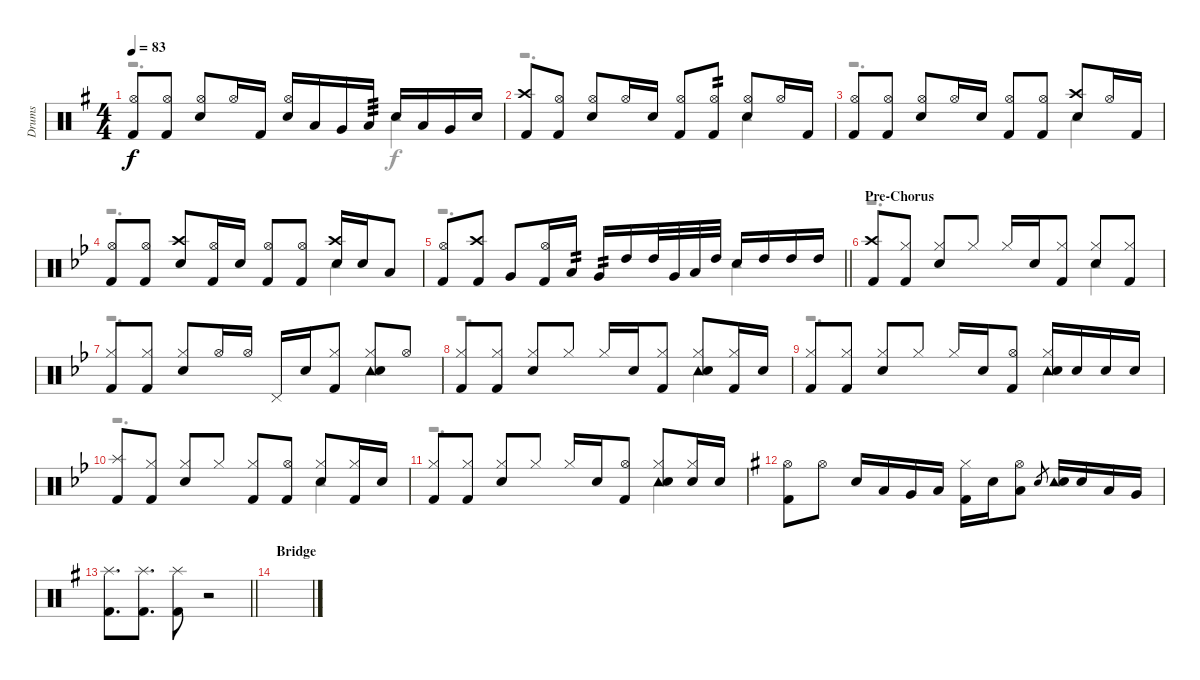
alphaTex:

\track ("Drums" "Drums") {instrument percussion}
\staff {score}
\articulation defaults
\voice
\ts (4 4)
\tempo 83
\clef neutral
\ks g
("Hi-Hat (open)" "Kick (hit) 2").8{dy f} ("Hi-Hat (open)" "Kick (hit) 2").8 ("Hi-Hat (open)" "Electric Snare (hit)").8 "Hi-Hat (open)".16 "Kick (hit) 2".16 ("Hi-Hat (open)" "Electric Snare (hit)").16 "Low Tom (hit)".16 "Very Low Tom (hit)".16 "Low Floor Tom (hit)".16{tp 3} "Electric Snare (hit)".16 "Low Tom (hit)".16 "Very Low Tom (hit)".16 "Electric Snare (hit)".16 |
("Crash high (hit)" "Kick (hit) 2").8 ("Hi-Hat (open)" "Kick (hit) 2").8 ("Hi-Hat (open)" "Electric Snare (hit)").8 "Hi-Hat (open)".16 "Electric Snare (hit)".16 ("Hi-Hat (open)" "Kick (hit) 2").8 ("Hi-Hat (open)" "Kick (hit) 2").8{tp 2} ("Hi-Hat (open)" "Electric Snare (hit)").8 "Hi-Hat (open)".16 "Kick (hit) 2".16 |
("Hi-Hat (open)" "Kick (hit) 2").8 ("Hi-Hat (open)" "Kick (hit) 2").8 ("Hi-Hat (open)" "Electric Snare (hit)").8 "Hi-Hat (open)".16 "Electric Snare (hit)".16 ("Hi-Hat (open)" "Kick (hit) 2").8 ("Hi-Hat (open)" "Kick (hit) 2").8 ("Crash high (hit)" "Electric Snare (hit)").8 "Hi-Hat (open)".16 "Kick (hit) 2".16 |
\ks bb
("Hi-Hat (open)" "Kick (hit) 2").8 ("Hi-Hat (open)" "Kick (hit) 2").8 ("Crash high (hit)" "Electric Snare (hit)").8 ("Hi-Hat (open)" "Kick (hit) 2").16 "Electric Snare (hit)".16 ("Hi-Hat (open)" "Kick (hit) 2").8 ("Hi-Hat (open)" "Kick (hit) 2").8 ("Crash high (hit)" "Electric Snare (hit)").16 "Electric Snare (hit)".16 "Low Tom (hit)".8 |
\barLineRight lightlight
("Hi-Hat (open)" "Kick (hit) 2").8 ("Crash high (hit)" "Kick (hit) 2").8 "Very Low Tom (hit)".8 ("Hi-Hat (open)" "Kick (hit) 2").16 "Low Tom (hit)".16{tp 2} "Very Low Tom (hit)".16{tp 2} "High Tom (hit)".16 "High Tom (hit)".32 "Very Low Tom (hit)".32 "Low Tom (hit)".32 "High Tom (hit)".32 "Electric Snare (hit)".16 "High Tom (hit)".16 "High Tom (hit)".16 "High Tom (hit)".16 |
\section ("" "Pre-Chorus")
("Crash high (hit)" "Kick (hit) 2").8 ("Hi-Hat (closed)" "Kick (hit) 2").8 ("Hi-Hat (closed)" "Electric Snare (hit)").8 "Hi-Hat (closed)".8 "Hi-Hat (closed)".16 "Electric Snare (hit)".16 ("Hi-Hat (closed)" "Kick (hit) 2").8 ("Hi-Hat (closed)" "Electric Snare (hit)").8 ("Hi-Hat (closed)" "Kick (hit) 2").8 |
("Hi-Hat (closed)" "Kick (hit) 2").8 ("Hi-Hat (closed)" "Kick (hit) 2").8 ("Hi-Hat (closed)" "Electric Snare (hit)").8 "Hi-Hat (open)".16 "Hi-Hat (open)".16 "Pedal Hi-Hat (hit)".16 "Electric Snare (hit)".16 ("Hi-Hat (closed)" "Kick (hit) 2").8 ("Hi-Hat (closed)" "Tambourine (hit)" "Electric Snare (hit)").8 "Hi-Hat (open)".8 |
("Hi-Hat (closed)" "Kick (hit) 2").8 ("Hi-Hat (closed)" "Kick (hit) 2").8 ("Hi-Hat (closed)" "Electric Snare (hit)").8 "Hi-Hat (closed)".8 "Hi-Hat (closed)".16 "Electric Snare (hit)".16 ("Hi-Hat (closed)" "Kick (hit) 2").8 ("Hi-Hat (closed)" "Tambourine (hit)" "Electric Snare (hit)").8 ("Hi-Hat (closed)" "Kick (hit) 2").16 "Electric Snare (hit)".16 |
("Hi-Hat (closed)" "Kick (hit) 2").8 ("Hi-Hat (closed)" "Kick (hit) 2").8 ("Hi-Hat (closed)" "Electric Snare (hit)").8 "Hi-Hat (closed)".8 "Hi-Hat (closed)".16 "Electric Snare (hit)".16 ("Hi-Hat (open)" "Kick (hit) 2").8 ("Hi-Hat (closed)" "Tambourine (hit)" "Electric Snare (hit)").16 "Electric Snare (hit)".16 "Electric Snare (hit)".16 "Electric Snare (hit)".16 |
("Splash (hit)" "Kick (hit) 2").8 ("Hi-Hat (closed)" "Kick (hit) 2").8 ("Hi-Hat (closed)" "Electric Snare (hit)").8 "Hi-Hat (closed)".8 ("Hi-Hat (closed)" "Kick (hit) 2").8 ("Hi-Hat (open)" "Kick (hit) 2").8 ("Hi-Hat (closed)" "Electric Snare (hit)").8 ("Hi-Hat (closed)" "Kick (hit) 2").16 "Electric Snare (hit)".16 |
("Hi-Hat (closed)" "Kick (hit) 2").8 ("Hi-Hat (closed)" "Kick (hit) 2").8 ("Hi-Hat (closed)" "Electric Snare (hit)").8 "Hi-Hat (closed)".8 "Hi-Hat (closed)".16 "Electric Snare (hit)".16 ("Hi-Hat (open)" "Kick (hit) 2").8 ("Hi-Hat (closed)" "Tambourine (hit)" "Electric Snare (hit)").8 ("Hi-Hat (closed)" "Electric Snare (hit)").16 "Electric Snare (hit)".16 |
\ks g
("Hi-Hat (open)" "Kick (hit) 2").8 "Hi-Hat (open)".8 "Electric Snare (hit)".16 "Low Tom (hit)".16 "Very Low Tom (hit)".16 "Low Floor Tom (hit)".16 ("Hi-Hat (closed)" "Kick (hit) 2").16 "Electric Snare (hit)".16 ("Hi-Hat (open)" "Low Tom (hit)").8 "Electric Snare (hit)".8{gr} ("Tambourine (hit)" "Electric Snare (hit)").16 "Electric Snare (hit)".16 "Low Tom (hit)".16 "Very Low Tom (hit)".16 |
\barLineRight lightlight
("Splash (hit)" "Kick (hit) 2").8{d} ("Splash (hit)" "Kick (hit) 2").8{d} ("Splash (hit)" "Kick (hit) 2").8 r.2 |
\section ("" "Bridge")
|
|
\voice
\clef neutral
\ottava regular
\simile none
\ks g
r.2{d dy f} "Tambourine (hit)".4 |
r.2{d} "Tambourine (hit)".4 |
r.2{d} "Tambourine (hit)".4 |
\ks bb
r.2{d} "Tambourine (hit)".4 |
\barLineRight lightlight
r.2{d} "Tambourine (hit)".4 |
r.2{d} "Tambourine (hit)".4 |
r.2{d} "Tambourine (hit)".4 |
r.2{d} "Tambourine (hit)".4 |
r.2{d} "Tambourine (hit)".4 |
r.2{d} "Tambourine (hit)".4 |
r.2{d} "Tambourine (hit)".4 |
\ks g
|
\barLineRight lightlight
|
|
|
